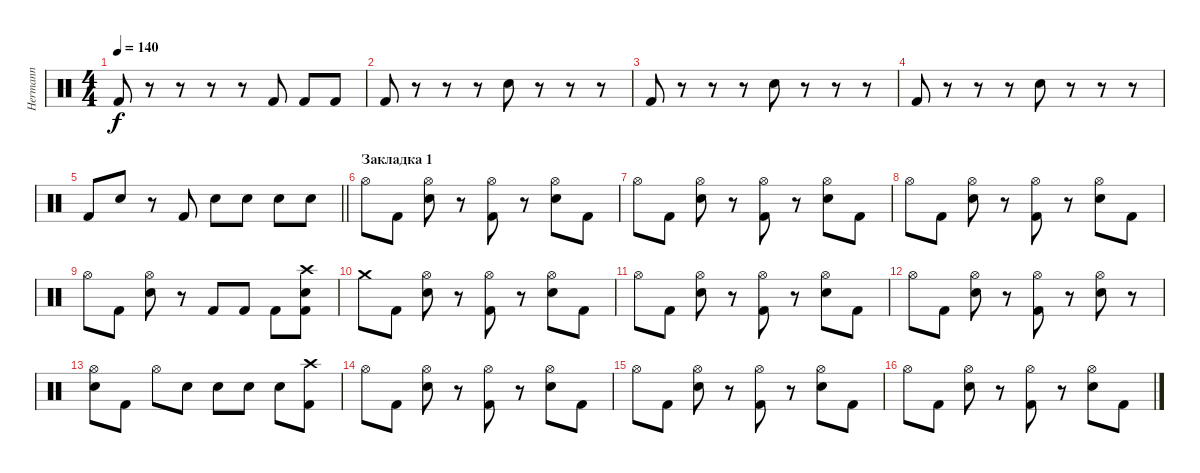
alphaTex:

\track ("Hermann" "Hermann") {instrument percussion}
\staff {score}
\articulation defaults
\ts (4 4)
\tempo 140
\clef neutral
\ks c "Kick (hit) 2".8{dy f}
r.8 r.8 r.8 r.8 "Kick (hit) 2".8 "Kick (hit) 2".8 "Kick (hit) 2".8 |
"Kick (hit) 2".8 r.8 r.8 r.8 "Electric Snare (hit)".8 r.8 r.8 r.8 |
"Kick (hit) 2".8 r.8 r.8 r.8 "Electric Snare (hit)".8 r.8 r.8 r.8 |
"Kick (hit) 2".8 r.8 r.8 r.8 "Electric Snare (hit)".8 r.8 r.8 r.8 |
\barLineRight lightlight "Kick (hit) 2".8 "Electric Snare (hit)".8
r.8 "Kick (hit) 2".8 "Electric Snare (hit)".8 "Electric Snare (hit)".8 "Electric Snare (hit)".8 "Electric Snare (hit)".8 |
\section ("" "Закладка 1")
"Hi-Hat (open)".8 "Kick (hit) 2".8 ("Hi-Hat (open)" "Electric Snare (hit)").8 r.8 ("Hi-Hat (open)" "Kick (hit) 2").8 r.8 ("Hi-Hat (open)" "Electric Snare (hit)").8 "Kick (hit) 2".8 |
"Hi-Hat (open)".8 "Kick (hit) 2".8 ("Hi-Hat (open)" "Electric Snare (hit)").8 r.8 ("Hi-Hat (open)" "Kick (hit) 2").8 r.8 ("Hi-Hat (open)" "Electric Snare (hit)").8 "Kick (hit) 2".8 |
"Hi-Hat (open)".8 "Kick (hit) 2".8 ("Hi-Hat (open)" "Electric Snare (hit)").8 r.8 ("Hi-Hat (open)" "Kick (hit) 2").8 r.8 ("Hi-Hat (open)" "Electric Snare (hit)").8 "Kick (hit) 2".8 |
"Hi-Hat (open)".8 "Kick (hit) 2".8 ("Hi-Hat (open)" "Electric Snare (hit)").8 r.8 "Kick (hit) 2".8 "Kick (hit) 2".8 "Kick (hit) 2".8 ("Crash high (hit)" "Kick (hit) 2" "Electric Snare (hit)").8 |
"Crash medium (hit)".8 "Kick (hit) 2".8 ("Hi-Hat (open)" "Electric Snare (hit)").8 r.8 ("Hi-Hat (open)" "Kick (hit) 2").8 r.8 ("Hi-Hat (open)" "Electric Snare (hit)").8 "Kick (hit) 2".8 |
"Hi-Hat (open)".8 "Kick (hit) 2".8 ("Hi-Hat (open)" "Electric Snare (hit)").8 r.8 ("Hi-Hat (open)" "Kick (hit) 2").8 r.8 ("Hi-Hat (open)" "Electric Snare (hit)").8 "Kick (hit) 2".8 |
"Hi-Hat (open)".8 "Kick (hit) 2".8 ("Hi-Hat (open)" "Electric Snare (hit)").8 r.8 ("Hi-Hat (open)" "Kick (hit) 2").8 r.8 ("Hi-Hat (open)" "Electric Snare (hit)").8 r.8 |
("Hi-Hat (open)" "Electric Snare (hit)").8 "Kick (hit) 2".8 "Hi-Hat (open)".8 "Electric Snare (hit)".8 "Electric Snare (hit)".8 "Electric Snare (hit)".8 "Electric Snare (hit)".8 ("Crash high (hit)" "Kick (hit) 2").8 |
"Hi-Hat (open)".8 "Kick (hit) 2".8 ("Hi-Hat (open)" "Electric Snare (hit)").8 r.8 ("Hi-Hat (open)" "Kick (hit) 2").8 r.8 ("Hi-Hat (open)" "Electric Snare (hit)").8 "Kick (hit) 2".8 |
"Hi-Hat (open)".8 "Kick (hit) 2".8 ("Hi-Hat (open)" "Electric Snare (hit)").8 r.8 ("Hi-Hat (open)" "Kick (hit) 2").8 r.8 ("Hi-Hat (open)" "Electric Snare (hit)").8 "Kick (hit) 2".8 |
"Hi-Hat (open)".8 "Kick (hit) 2".8 ("Hi-Hat (open)" "Electric Snare (hit)").8 r.8 ("Hi-Hat (open)" "Kick (hit) 2").8 r.8 ("Hi-Hat (open)" "Electric Snare (hit)").8 "Kick (hit) 2".8
